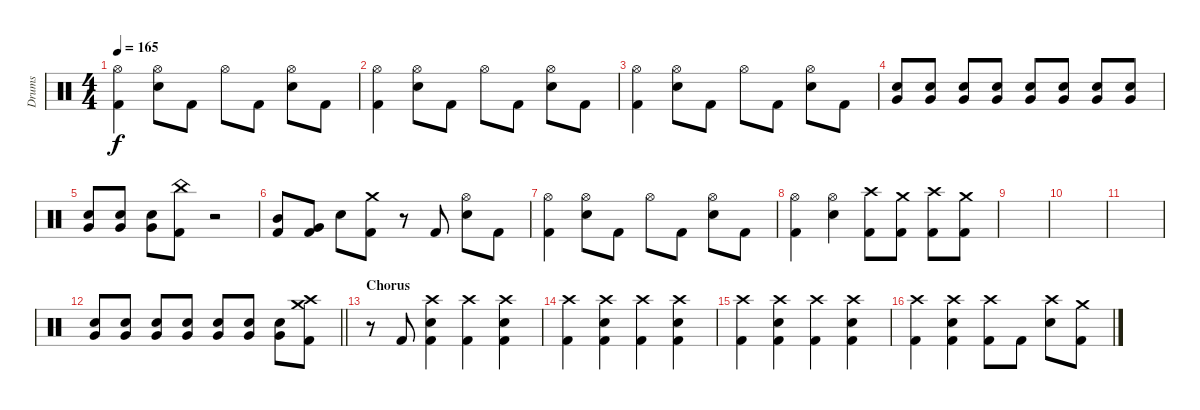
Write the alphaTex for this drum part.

\track ("Drums" "Drums") {instrument percussion}
\staff {score}
\articulation defaults
\ts (4 4)
\tempo 165
\clef neutral
\ks c
("Hi-Hat (open)" "Kick (hit) 2").4{dy f} ("Hi-Hat (open)" "Electric Snare (hit)").8 "Kick (hit) 2".8 "Hi-Hat (open)".8 "Kick (hit) 2".8 ("Hi-Hat (open)" "Electric Snare (hit)").8 "Kick (hit) 2".8 |
("Hi-Hat (open)" "Kick (hit) 2").4 ("Hi-Hat (open)" "Electric Snare (hit)").8 "Kick (hit) 2".8 "Hi-Hat (open)".8 "Kick (hit) 2".8 ("Hi-Hat (open)" "Electric Snare (hit)").8 "Kick (hit) 2".8 |
("Hi-Hat (open)" "Kick (hit) 2").4 ("Hi-Hat (open)" "Electric Snare (hit)").8 "Kick (hit) 2".8 "Hi-Hat (open)".8 "Kick (hit) 2".8 ("Hi-Hat (open)" "Electric Snare (hit)").8 "Kick (hit) 2".8 |
("Very Low Tom (hit)" "Electric Snare (hit)").8 ("Very Low Tom (hit)" "Electric Snare (hit)").8 ("Very Low Tom (hit)" "Electric Snare (hit)").8 ("Very Low Tom (hit)" "Electric Snare (hit)").8 ("Very Low Tom (hit)" "Electric Snare (hit)").8 ("Very Low Tom (hit)" "Electric Snare (hit)").8 ("Very Low Tom (hit)" "Electric Snare (hit)").8 ("Very Low Tom (hit)" "Electric Snare (hit)").8 |
("Very Low Tom (hit)" "Electric Snare (hit)").8 ("Very Low Tom (hit)" "Electric Snare (hit)").8 ("Very Low Tom (hit)" "Electric Snare (hit)").8 ("China (hit)" "Kick (hit) 2").8 r.2 |
("Mid Tom (hit)" "Kick (hit) 2").8 ("Very Low Tom (hit)" "Kick (hit) 2").8 "Electric Snare (hit)".8 ("Crash medium (hit)" "Kick (hit) 2").8 r.8 "Kick (hit) 2".8 ("Hi-Hat (open)" "Electric Snare (hit)").8 "Kick (hit) 2".8 |
("Hi-Hat (open)" "Kick (hit) 2").4 ("Hi-Hat (open)" "Electric Snare (hit)").8 "Kick (hit) 2".8 "Hi-Hat (open)".8 "Kick (hit) 2".8 ("Hi-Hat (open)" "Electric Snare (hit)").8 "Kick (hit) 2".8 |
("Hi-Hat (open)" "Kick (hit) 2").4 ("Hi-Hat (open)" "Electric Snare (hit)").4 ("Crash high (hit)" "Kick (hit) 2").8 ("Crash medium (hit)" "Kick (hit) 2").8 ("Crash high (hit)" "Kick (hit) 2").8 ("Crash medium (hit)" "Kick (hit) 2").8 |
|
|
|
\barLineRight lightlight
("Very Low Tom (hit)" "Electric Snare (hit)").8 ("Very Low Tom (hit)" "Electric Snare (hit)").8 ("Very Low Tom (hit)" "Electric Snare (hit)").8 ("Very Low Tom (hit)" "Electric Snare (hit)").8 ("Very Low Tom (hit)" "Electric Snare (hit)").8 ("Very Low Tom (hit)" "Electric Snare (hit)").8 ("Very Low Tom (hit)" "Electric Snare (hit)").8 ("Crash high (hit)" "Crash medium (hit)" "Kick (hit) 2").8 |
\section ("" "Chorus")
r.8 "Kick (hit) 2".8 ("Crash high (hit)" "Electric Snare (hit)" "Kick (hit) 2").4 ("Crash high (hit)" "Kick (hit) 2").4 ("Crash high (hit)" "Electric Snare (hit)" "Kick (hit) 2").4 |
("Crash high (hit)" "Kick (hit) 2").4 ("Crash high (hit)" "Electric Snare (hit)" "Kick (hit) 2").4 ("Crash high (hit)" "Kick (hit) 2").4 ("Crash high (hit)" "Electric Snare (hit)" "Kick (hit) 2").4 |
("Crash high (hit)" "Kick (hit) 2").4 ("Crash high (hit)" "Electric Snare (hit)" "Kick (hit) 2").4 ("Crash high (hit)" "Kick (hit) 2").4 ("Crash high (hit)" "Electric Snare (hit)" "Kick (hit) 2").4 |
("Crash high (hit)" "Kick (hit) 2").4 ("Crash high (hit)" "Electric Snare (hit)" "Kick (hit) 2").4 ("Crash high (hit)" "Kick (hit) 2").8 "Kick (hit) 2".8 ("Crash high (hit)" "Electric Snare (hit)").8 ("Crash medium (hit)" "Kick (hit) 2").8
